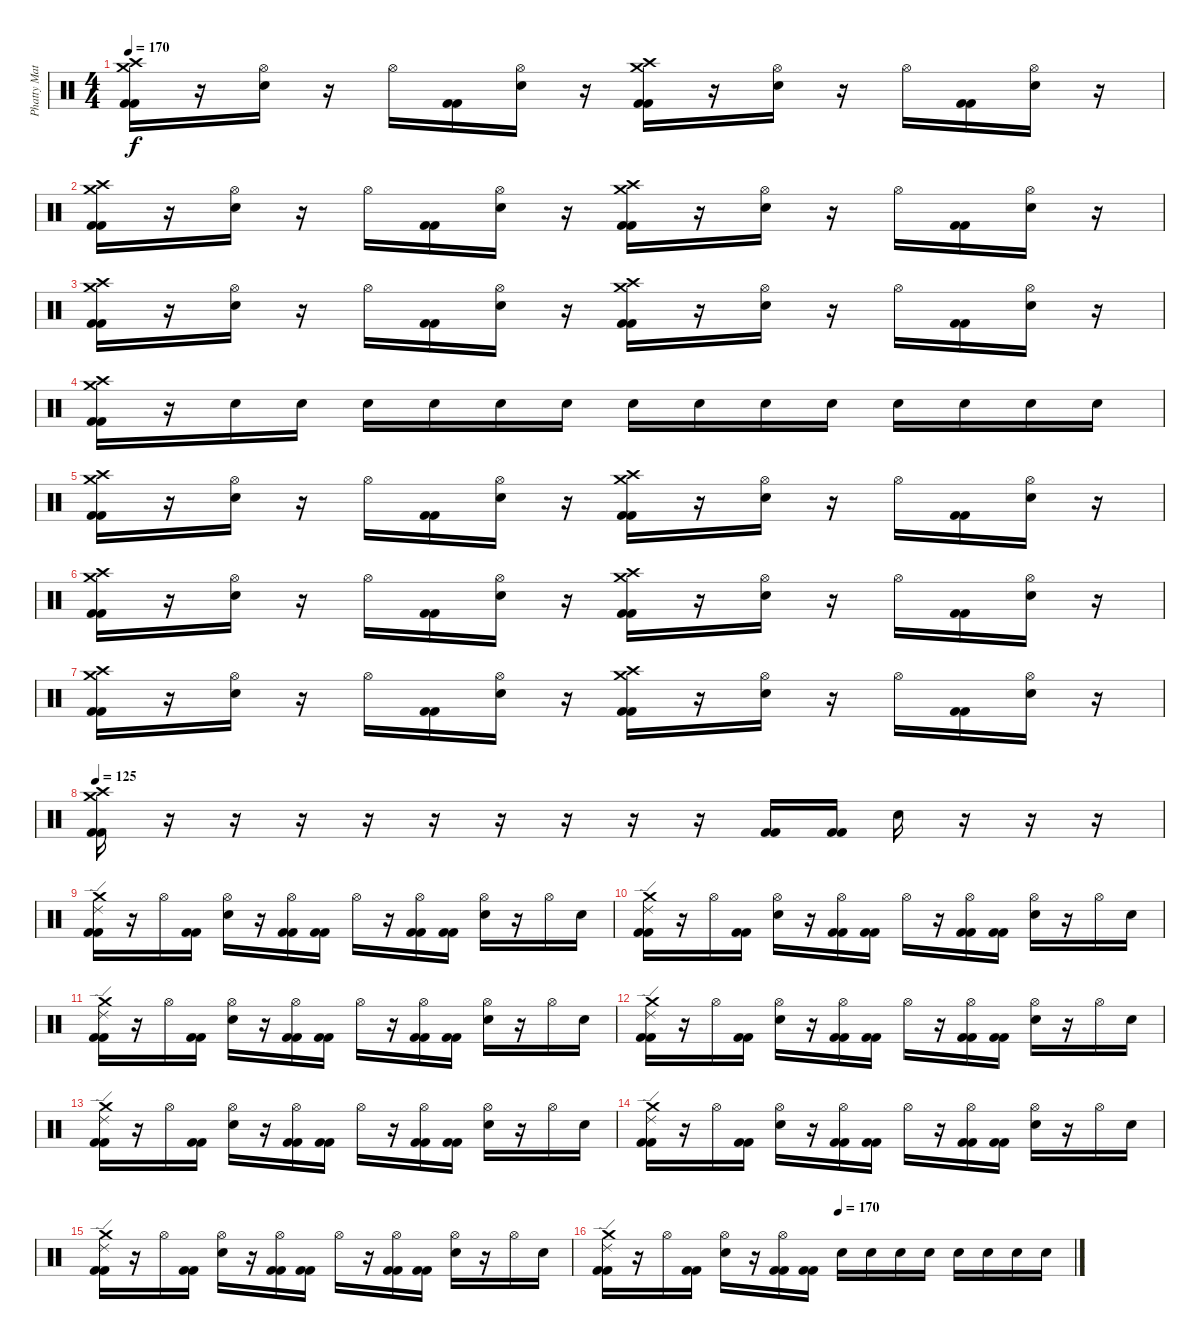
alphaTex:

\track ("Phatty Matty Withrow (Drums)" "Phatty Mat") {instrument percussion}
\staff {score}
\articulation defaults
\ts (4 4)
\tempo 170
\clef neutral
\ks c
("Crash medium (hit)" "Crash high (hit)" "Kick (hit) 2" "Kick (hit) 2").16{dy f} r.16 ("Hi-Hat (open)" "Electric Snare (hit)").16 r.16 "Hi-Hat (open)".16 ("Kick (hit) 2" "Kick (hit) 2").16 ("Hi-Hat (open)" "Electric Snare (hit)").16 r.16 ("Crash medium (hit)" "Crash high (hit)" "Kick (hit) 2" "Kick (hit) 2").16 r.16 ("Hi-Hat (open)" "Electric Snare (hit)").16 r.16 "Hi-Hat (open)".16 ("Kick (hit) 2" "Kick (hit) 2").16 ("Hi-Hat (open)" "Electric Snare (hit)").16 r.16 |
("Crash medium (hit)" "Crash high (hit)" "Kick (hit) 2" "Kick (hit) 2").16 r.16 ("Hi-Hat (open)" "Electric Snare (hit)").16 r.16 "Hi-Hat (open)".16 ("Kick (hit) 2" "Kick (hit) 2").16 ("Hi-Hat (open)" "Electric Snare (hit)").16 r.16 ("Crash medium (hit)" "Crash high (hit)" "Kick (hit) 2" "Kick (hit) 2").16 r.16 ("Hi-Hat (open)" "Electric Snare (hit)").16 r.16 "Hi-Hat (open)".16 ("Kick (hit) 2" "Kick (hit) 2").16 ("Hi-Hat (open)" "Electric Snare (hit)").16 r.16 |
("Crash medium (hit)" "Crash high (hit)" "Kick (hit) 2" "Kick (hit) 2").16 r.16 ("Hi-Hat (open)" "Electric Snare (hit)").16 r.16 "Hi-Hat (open)".16 ("Kick (hit) 2" "Kick (hit) 2").16 ("Hi-Hat (open)" "Electric Snare (hit)").16 r.16 ("Crash medium (hit)" "Crash high (hit)" "Kick (hit) 2" "Kick (hit) 2").16 r.16 ("Hi-Hat (open)" "Electric Snare (hit)").16 r.16 "Hi-Hat (open)".16 ("Kick (hit) 2" "Kick (hit) 2").16 ("Hi-Hat (open)" "Electric Snare (hit)").16 r.16 |
("Crash medium (hit)" "Crash high (hit)" "Kick (hit) 2" "Kick (hit) 2").16 r.16 "Electric Snare (hit)".16 "Electric Snare (hit)".16 "Electric Snare (hit)".16 "Electric Snare (hit)".16 "Electric Snare (hit)".16 "Electric Snare (hit)".16 "Electric Snare (hit)".16 "Electric Snare (hit)".16 "Electric Snare (hit)".16 "Electric Snare (hit)".16 "Electric Snare (hit)".16 "Electric Snare (hit)".16 "Electric Snare (hit)".16 "Electric Snare (hit)".16 |
("Crash medium (hit)" "Crash high (hit)" "Kick (hit) 2" "Kick (hit) 2").16 r.16 ("Hi-Hat (open)" "Electric Snare (hit)").16 r.16 "Hi-Hat (open)".16 ("Kick (hit) 2" "Kick (hit) 2").16 ("Hi-Hat (open)" "Electric Snare (hit)").16 r.16 ("Crash medium (hit)" "Crash high (hit)" "Kick (hit) 2" "Kick (hit) 2").16 r.16 ("Hi-Hat (open)" "Electric Snare (hit)").16 r.16 "Hi-Hat (open)".16 ("Kick (hit) 2" "Kick (hit) 2").16 ("Hi-Hat (open)" "Electric Snare (hit)").16 r.16 |
("Crash medium (hit)" "Crash high (hit)" "Kick (hit) 2" "Kick (hit) 2").16 r.16 ("Hi-Hat (open)" "Electric Snare (hit)").16 r.16 "Hi-Hat (open)".16 ("Kick (hit) 2" "Kick (hit) 2").16 ("Hi-Hat (open)" "Electric Snare (hit)").16 r.16 ("Crash medium (hit)" "Crash high (hit)" "Kick (hit) 2" "Kick (hit) 2").16 r.16 ("Hi-Hat (open)" "Electric Snare (hit)").16 r.16 "Hi-Hat (open)".16 ("Kick (hit) 2" "Kick (hit) 2").16 ("Hi-Hat (open)" "Electric Snare (hit)").16 r.16 |
("Crash medium (hit)" "Crash high (hit)" "Kick (hit) 2" "Kick (hit) 2").16 r.16 ("Hi-Hat (open)" "Electric Snare (hit)").16 r.16 "Hi-Hat (open)".16 ("Kick (hit) 2" "Kick (hit) 2").16 ("Hi-Hat (open)" "Electric Snare (hit)").16 r.16 ("Crash medium (hit)" "Crash high (hit)" "Kick (hit) 2" "Kick (hit) 2").16 r.16 ("Hi-Hat (open)" "Electric Snare (hit)").16 r.16 "Hi-Hat (open)".16 ("Kick (hit) 2" "Kick (hit) 2").16 ("Hi-Hat (open)" "Electric Snare (hit)").16 r.16 |
\tempo 125
("Crash medium (hit)" "Crash high (hit)" "Kick (hit) 2" "Kick (hit) 2").16 r.16 r.16 r.16 r.16 r.16 r.16 r.16 r.16 r.16 ("Kick (hit) 2" "Kick (hit) 2").16 ("Kick (hit) 2" "Kick (hit) 2").16 "Electric Snare (hit)".16 r.16 r.16 r.16 |
("Crash medium (hit)" "Ride (edge) 2" "Kick (hit) 2" "Kick (hit) 2").16 r.16 "Hi-Hat (open)".16 ("Kick (hit) 2" "Kick (hit) 2").16 ("Hi-Hat (open)" "Electric Snare (hit)").16 r.16 ("Hi-Hat (open)" "Kick (hit) 2" "Kick (hit) 2").16 ("Kick (hit) 2" "Kick (hit) 2").16 "Hi-Hat (open)".16 r.16 ("Hi-Hat (open)" "Kick (hit) 2" "Kick (hit) 2").16 ("Kick (hit) 2" "Kick (hit) 2").16 ("Hi-Hat (open)" "Electric Snare (hit)").16 r.16 "Hi-Hat (open)".16 "Electric Snare (hit)".16 |
("Crash medium (hit)" "Ride (edge) 2" "Kick (hit) 2" "Kick (hit) 2").16 r.16 "Hi-Hat (open)".16 ("Kick (hit) 2" "Kick (hit) 2").16 ("Hi-Hat (open)" "Electric Snare (hit)").16 r.16 ("Hi-Hat (open)" "Kick (hit) 2" "Kick (hit) 2").16 ("Kick (hit) 2" "Kick (hit) 2").16 "Hi-Hat (open)".16 r.16 ("Hi-Hat (open)" "Kick (hit) 2" "Kick (hit) 2").16 ("Kick (hit) 2" "Kick (hit) 2").16 ("Hi-Hat (open)" "Electric Snare (hit)").16 r.16 "Hi-Hat (open)".16 "Electric Snare (hit)".16 |
("Crash medium (hit)" "Ride (edge) 2" "Kick (hit) 2" "Kick (hit) 2").16 r.16 "Hi-Hat (open)".16 ("Kick (hit) 2" "Kick (hit) 2").16 ("Hi-Hat (open)" "Electric Snare (hit)").16 r.16 ("Hi-Hat (open)" "Kick (hit) 2" "Kick (hit) 2").16 ("Kick (hit) 2" "Kick (hit) 2").16 "Hi-Hat (open)".16 r.16 ("Hi-Hat (open)" "Kick (hit) 2" "Kick (hit) 2").16 ("Kick (hit) 2" "Kick (hit) 2").16 ("Hi-Hat (open)" "Electric Snare (hit)").16 r.16 "Hi-Hat (open)".16 "Electric Snare (hit)".16 |
("Crash medium (hit)" "Ride (edge) 2" "Kick (hit) 2" "Kick (hit) 2").16 r.16 "Hi-Hat (open)".16 ("Kick (hit) 2" "Kick (hit) 2").16 ("Hi-Hat (open)" "Electric Snare (hit)").16 r.16 ("Hi-Hat (open)" "Kick (hit) 2" "Kick (hit) 2").16 ("Kick (hit) 2" "Kick (hit) 2").16 "Hi-Hat (open)".16 r.16 ("Hi-Hat (open)" "Kick (hit) 2" "Kick (hit) 2").16 ("Kick (hit) 2" "Kick (hit) 2").16 ("Hi-Hat (open)" "Electric Snare (hit)").16 r.16 "Hi-Hat (open)".16 "Electric Snare (hit)".16 |
("Crash medium (hit)" "Ride (edge) 2" "Kick (hit) 2" "Kick (hit) 2").16 r.16 "Hi-Hat (open)".16 ("Kick (hit) 2" "Kick (hit) 2").16 ("Hi-Hat (open)" "Electric Snare (hit)").16 r.16 ("Hi-Hat (open)" "Kick (hit) 2" "Kick (hit) 2").16 ("Kick (hit) 2" "Kick (hit) 2").16 "Hi-Hat (open)".16 r.16 ("Hi-Hat (open)" "Kick (hit) 2" "Kick (hit) 2").16 ("Kick (hit) 2" "Kick (hit) 2").16 ("Hi-Hat (open)" "Electric Snare (hit)").16 r.16 "Hi-Hat (open)".16 "Electric Snare (hit)".16 |
("Crash medium (hit)" "Ride (edge) 2" "Kick (hit) 2" "Kick (hit) 2").16 r.16 "Hi-Hat (open)".16 ("Kick (hit) 2" "Kick (hit) 2").16 ("Hi-Hat (open)" "Electric Snare (hit)").16 r.16 ("Hi-Hat (open)" "Kick (hit) 2" "Kick (hit) 2").16 ("Kick (hit) 2" "Kick (hit) 2").16 "Hi-Hat (open)".16 r.16 ("Hi-Hat (open)" "Kick (hit) 2" "Kick (hit) 2").16 ("Kick (hit) 2" "Kick (hit) 2").16 ("Hi-Hat (open)" "Electric Snare (hit)").16 r.16 "Hi-Hat (open)".16 "Electric Snare (hit)".16 |
("Crash medium (hit)" "Ride (edge) 2" "Kick (hit) 2" "Kick (hit) 2").16 r.16 "Hi-Hat (open)".16 ("Kick (hit) 2" "Kick (hit) 2").16 ("Hi-Hat (open)" "Electric Snare (hit)").16 r.16 ("Hi-Hat (open)" "Kick (hit) 2" "Kick (hit) 2").16 ("Kick (hit) 2" "Kick (hit) 2").16 "Hi-Hat (open)".16 r.16 ("Hi-Hat (open)" "Kick (hit) 2" "Kick (hit) 2").16 ("Kick (hit) 2" "Kick (hit) 2").16 ("Hi-Hat (open)" "Electric Snare (hit)").16 r.16 "Hi-Hat (open)".16 "Electric Snare (hit)".16 |
\tempo (170 0.5)
("Crash medium (hit)" "Ride (edge) 2" "Kick (hit) 2" "Kick (hit) 2").16 r.16 "Hi-Hat (open)".16 ("Kick (hit) 2" "Kick (hit) 2").16 ("Hi-Hat (open)" "Electric Snare (hit)").16 r.16 ("Hi-Hat (open)" "Kick (hit) 2" "Kick (hit) 2").16 ("Kick (hit) 2" "Kick (hit) 2").16 "Electric Snare (hit)".16 "Electric Snare (hit)".16 "Electric Snare (hit)".16 "Electric Snare (hit)".16 "Electric Snare (hit)".16 "Electric Snare (hit)".16 "Electric Snare (hit)".16 "Electric Snare (hit)".16
